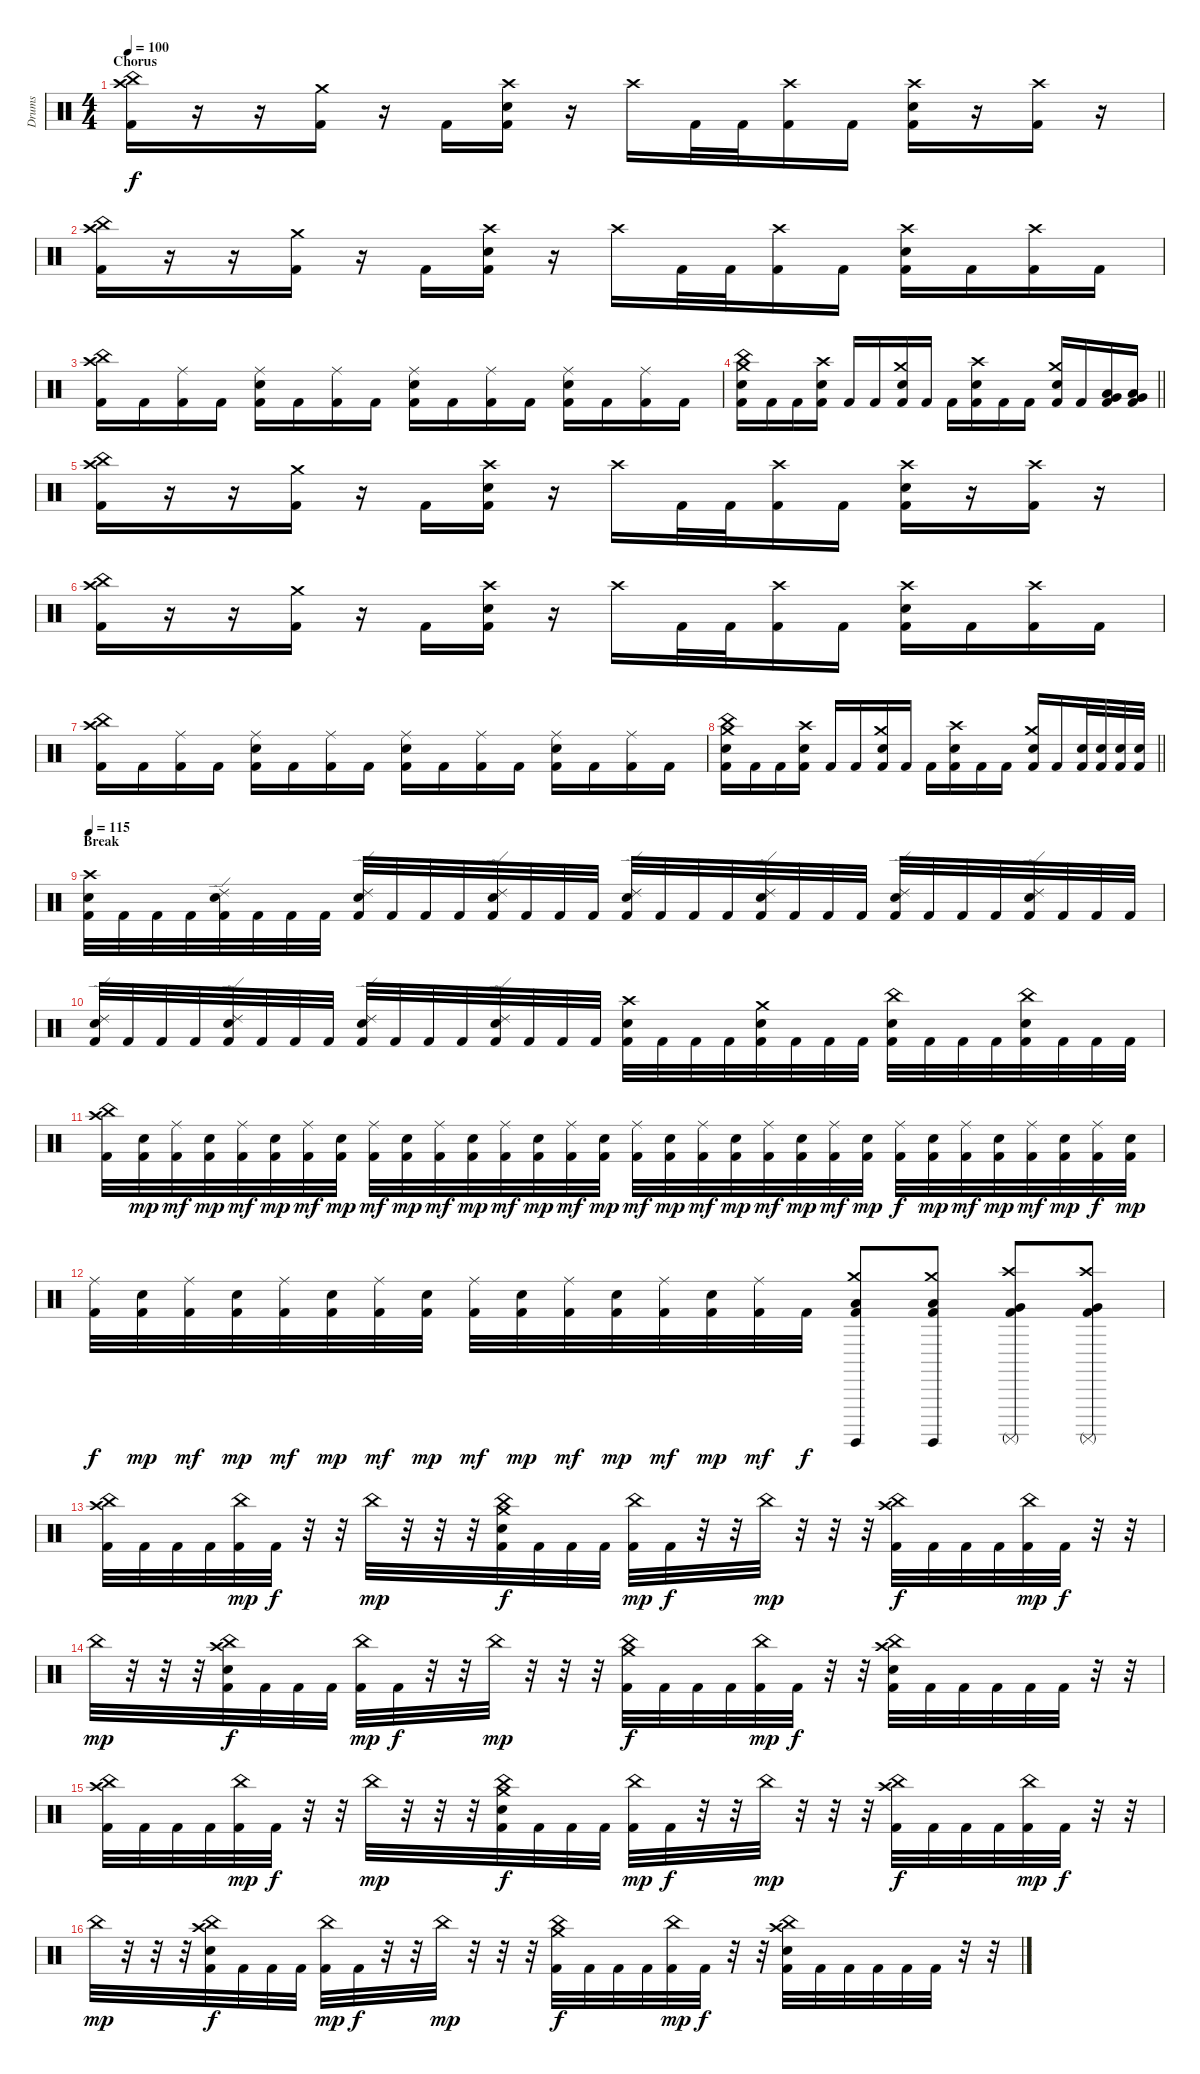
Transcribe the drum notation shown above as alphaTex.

\track ("Drums" "Drums") {instrument percussion}
\staff {score}
\articulation defaults
\ts (4 4)
\section ("" "Chorus")
\tempo 100
\clef neutral
\ks c
("China (hit)" "Crash high (hit)" "Kick (hit) 2").16{dy f} r.16 r.16 ("Crash medium (hit)" "Kick (hit) 2").16 r.16 "Kick (hit) 2".16 ("Crash high (hit)" "Electric Snare (hit)" "Kick (hit) 2").16 r.16 "Crash high (hit)".16 "Kick (hit) 2".32 "Kick (hit) 2".32 ("Crash high (hit)" "Kick (hit) 2").16 "Kick (hit) 2".16 ("Crash high (hit)" "Electric Snare (hit)" "Kick (hit) 2").16 r.16 ("Crash high (hit)" "Kick (hit) 2").16 r.16 |
("China (hit)" "Crash high (hit)" "Kick (hit) 2").16 r.16 r.16 ("Crash medium (hit)" "Kick (hit) 2").16 r.16 "Kick (hit) 2".16 ("Crash high (hit)" "Electric Snare (hit)" "Kick (hit) 2").16 r.16 "Crash high (hit)".16 "Kick (hit) 2".32 "Kick (hit) 2".32 ("Crash high (hit)" "Kick (hit) 2").16 "Kick (hit) 2".16 ("Crash high (hit)" "Electric Snare (hit)" "Kick (hit) 2").16 "Kick (hit) 2".16 ("Crash high (hit)" "Kick (hit) 2").16 "Kick (hit) 2".16 |
("China (hit)" "Crash high (hit)" "Kick (hit) 2").16 "Kick (hit) 2".16 ("Ride (middle)" "Kick (hit) 2").16 "Kick (hit) 2".16 ("Ride (middle)" "Electric Snare (hit)" "Kick (hit) 2").16 "Kick (hit) 2".16 ("Ride (middle)" "Kick (hit) 2").16 "Kick (hit) 2".16 ("Ride (middle)" "Electric Snare (hit)" "Kick (hit) 2").16 "Kick (hit) 2".16 ("Ride (middle)" "Kick (hit) 2").16 "Kick (hit) 2".16 ("Ride (middle)" "Electric Snare (hit)" "Kick (hit) 2").16 "Kick (hit) 2".16 ("Ride (middle)" "Kick (hit) 2").16 "Kick (hit) 2".16 |
\barLineRight lightlight
("China (hit)" "Crash medium (hit)" "Electric Snare (hit)" "Kick (hit) 2").16 "Kick (hit) 2".16 "Kick (hit) 2".16 ("Crash high (hit)" "Electric Snare (hit)" "Kick (hit) 2").16 "Kick (hit) 2".16 "Kick (hit) 2".16 ("Crash medium (hit)" "Electric Snare (hit)" "Kick (hit) 2").16 "Kick (hit) 2".16 "Kick (hit) 2".16 ("Crash high (hit)" "Electric Snare (hit)" "Kick (hit) 2").16 "Kick (hit) 2".16 "Kick (hit) 2".16 ("Crash medium (hit)" "Electric Snare (hit)" "Kick (hit) 2").16 "Kick (hit) 2".16 ("Very Low Tom (hit)" "Low Tom (hit)" "Kick (hit) 2").16 ("Low Floor Tom (hit)" "Very Low Tom (hit)" "Kick (hit) 2").16 |
("China (hit)" "Crash high (hit)" "Kick (hit) 2").16 r.16 r.16 ("Crash medium (hit)" "Kick (hit) 2").16 r.16 "Kick (hit) 2".16 ("Crash high (hit)" "Electric Snare (hit)" "Kick (hit) 2").16 r.16 "Crash high (hit)".16 "Kick (hit) 2".32 "Kick (hit) 2".32 ("Crash high (hit)" "Kick (hit) 2").16 "Kick (hit) 2".16 ("Crash high (hit)" "Electric Snare (hit)" "Kick (hit) 2").16 r.16 ("Crash high (hit)" "Kick (hit) 2").16 r.16 |
("China (hit)" "Crash high (hit)" "Kick (hit) 2").16 r.16 r.16 ("Crash medium (hit)" "Kick (hit) 2").16 r.16 "Kick (hit) 2".16 ("Crash high (hit)" "Electric Snare (hit)" "Kick (hit) 2").16 r.16 "Crash high (hit)".16 "Kick (hit) 2".32 "Kick (hit) 2".32 ("Crash high (hit)" "Kick (hit) 2").16 "Kick (hit) 2".16 ("Crash high (hit)" "Electric Snare (hit)" "Kick (hit) 2").16 "Kick (hit) 2".16 ("Crash high (hit)" "Kick (hit) 2").16 "Kick (hit) 2".16 |
("China (hit)" "Crash high (hit)" "Kick (hit) 2").16 "Kick (hit) 2".16 ("Ride (middle)" "Kick (hit) 2").16 "Kick (hit) 2".16 ("Ride (middle)" "Electric Snare (hit)" "Kick (hit) 2").16 "Kick (hit) 2".16 ("Ride (middle)" "Kick (hit) 2").16 "Kick (hit) 2".16 ("Ride (middle)" "Electric Snare (hit)" "Kick (hit) 2").16 "Kick (hit) 2".16 ("Ride (middle)" "Kick (hit) 2").16 "Kick (hit) 2".16 ("Ride (middle)" "Electric Snare (hit)" "Kick (hit) 2").16 "Kick (hit) 2".16 ("Ride (middle)" "Kick (hit) 2").16 "Kick (hit) 2".16 |
\barLineRight lightlight
("China (hit)" "Crash medium (hit)" "Electric Snare (hit)" "Kick (hit) 2").16 "Kick (hit) 2".16 "Kick (hit) 2".16 ("Crash high (hit)" "Electric Snare (hit)" "Kick (hit) 2").16 "Kick (hit) 2".16 "Kick (hit) 2".16 ("Crash medium (hit)" "Electric Snare (hit)" "Kick (hit) 2").16 "Kick (hit) 2".16 "Kick (hit) 2".16 ("Crash high (hit)" "Electric Snare (hit)" "Kick (hit) 2").16 "Kick (hit) 2".16 "Kick (hit) 2".16 ("Crash medium (hit)" "Electric Snare (hit)" "Kick (hit) 2").16 "Kick (hit) 2".16 ("Electric Snare (hit)" "Kick (hit) 2").32 ("Electric Snare (hit)" "Kick (hit) 2").32 ("Electric Snare (hit)" "Kick (hit) 2").32 ("Electric Snare (hit)" "Kick (hit) 2").32 |
\section ("" "Break")
\tempo 115
("Crash high (hit)" "Electric Snare (hit)" "Kick (hit) 2").32 "Kick (hit) 2".32 "Kick (hit) 2".32 "Kick (hit) 2".32 ("Ride (edge) 2" "Electric Snare (hit)" "Kick (hit) 2").32 "Kick (hit) 2".32 "Kick (hit) 2".32 "Kick (hit) 2".32 ("Ride (edge) 2" "Electric Snare (hit)" "Kick (hit) 2").32 "Kick (hit) 2".32 "Kick (hit) 2".32 "Kick (hit) 2".32 ("Ride (edge) 2" "Electric Snare (hit)" "Kick (hit) 2").32 "Kick (hit) 2".32 "Kick (hit) 2".32 "Kick (hit) 2".32 ("Ride (edge) 2" "Electric Snare (hit)" "Kick (hit) 2").32 "Kick (hit) 2".32 "Kick (hit) 2".32 "Kick (hit) 2".32 ("Ride (edge) 2" "Electric Snare (hit)" "Kick (hit) 2").32 "Kick (hit) 2".32 "Kick (hit) 2".32 "Kick (hit) 2".32 ("Ride (edge) 2" "Electric Snare (hit)" "Kick (hit) 2").32 "Kick (hit) 2".32 "Kick (hit) 2".32 "Kick (hit) 2".32 ("Ride (edge) 2" "Electric Snare (hit)" "Kick (hit) 2").32 "Kick (hit) 2".32 "Kick (hit) 2".32 "Kick (hit) 2".32 |
("Ride (edge) 2" "Electric Snare (hit)" "Kick (hit) 2").32 "Kick (hit) 2".32 "Kick (hit) 2".32 "Kick (hit) 2".32 ("Ride (edge) 2" "Electric Snare (hit)" "Kick (hit) 2").32 "Kick (hit) 2".32 "Kick (hit) 2".32 "Kick (hit) 2".32 ("Ride (edge) 2" "Electric Snare (hit)" "Kick (hit) 2").32 "Kick (hit) 2".32 "Kick (hit) 2".32 "Kick (hit) 2".32 ("Ride (edge) 2" "Electric Snare (hit)" "Kick (hit) 2").32 "Kick (hit) 2".32 "Kick (hit) 2".32 "Kick (hit) 2".32 ("Crash high (hit)" "Electric Snare (hit)" "Kick (hit) 2").32 "Kick (hit) 2".32 "Kick (hit) 2".32 "Kick (hit) 2".32 ("Crash medium (hit)" "Electric Snare (hit)" "Kick (hit) 2").32 "Kick (hit) 2".32 "Kick (hit) 2".32 "Kick (hit) 2".32 ("China (hit)" "Electric Snare (hit)" "Kick (hit) 2").32 "Kick (hit) 2".32 "Kick (hit) 2".32 "Kick (hit) 2".32 ("China (hit)" "Electric Snare (hit)" "Kick (hit) 2").32 "Kick (hit) 2".32 "Kick (hit) 2".32 "Kick (hit) 2".32 |
("China (hit)" "Crash high (hit)" "Kick (hit) 2").32 ("Electric Snare (hit)" "Kick (hit) 2").32{dy mp} ("Ride (middle)" "Kick (hit) 2").32{dy mf} ("Electric Snare (hit)" "Kick (hit) 2").32{dy mp} ("Ride (middle)" "Kick (hit) 2").32{dy mf} ("Electric Snare (hit)" "Kick (hit) 2").32{dy mp} ("Ride (middle)" "Kick (hit) 2").32{dy mf} ("Electric Snare (hit)" "Kick (hit) 2").32{dy mp} ("Ride (middle)" "Kick (hit) 2").32{dy mf} ("Electric Snare (hit)" "Kick (hit) 2").32{dy mp} ("Ride (middle)" "Kick (hit) 2").32{dy mf} ("Electric Snare (hit)" "Kick (hit) 2").32{dy mp} ("Ride (middle)" "Kick (hit) 2").32{dy mf} ("Electric Snare (hit)" "Kick (hit) 2").32{dy mp} ("Ride (middle)" "Kick (hit) 2").32{dy mf} ("Electric Snare (hit)" "Kick (hit) 2").32{dy mp} ("Ride (middle)" "Kick (hit) 2").32{dy mf} ("Electric Snare (hit)" "Kick (hit) 2").32{dy mp} ("Ride (middle)" "Kick (hit) 2").32{dy mf} ("Electric Snare (hit)" "Kick (hit) 2").32{dy mp} ("Ride (middle)" "Kick (hit) 2").32{dy mf} ("Electric Snare (hit)" "Kick (hit) 2").32{dy mp} ("Ride (middle)" "Kick (hit) 2").32{dy mf} ("Electric Snare (hit)" "Kick (hit) 2").32{dy mp} ("Ride (middle)" "Kick (hit) 2").32{dy f} ("Electric Snare (hit)" "Kick (hit) 2").32{dy mp} ("Ride (middle)" "Kick (hit) 2").32{dy mf} ("Electric Snare (hit)" "Kick (hit) 2").32{dy mp} ("Ride (middle)" "Kick (hit) 2").32{dy mf} ("Electric Snare (hit)" "Kick (hit) 2").32{dy mp} ("Ride (middle)" "Kick (hit) 2").32{dy f} ("Electric Snare (hit)" "Kick (hit) 2").32{dy mp} |
("Ride (middle)" "Kick (hit) 2").32{dy f} ("Electric Snare (hit)" "Kick (hit) 2").32{dy mp} ("Ride (middle)" "Kick (hit) 2").32{dy mf} ("Electric Snare (hit)" "Kick (hit) 2").32{dy mp} ("Ride (middle)" "Kick (hit) 2").32{dy mf} ("Electric Snare (hit)" "Kick (hit) 2").32{dy mp} ("Ride (middle)" "Kick (hit) 2").32{dy mf} ("Electric Snare (hit)" "Kick (hit) 2").32{dy mp} ("Ride (middle)" "Kick (hit) 2").32{dy mf} ("Electric Snare (hit)" "Kick (hit) 2").32{dy mp} ("Ride (middle)" "Kick (hit) 2").32{dy mf} ("Electric Snare (hit)" "Kick (hit) 2").32{dy mp} ("Ride (middle)" "Kick (hit) 2").32{dy mf} ("Electric Snare (hit)" "Kick (hit) 2").32{dy mp} ("Ride (middle)" "Kick (hit) 2").32{dy mf} "Kick (hit) 2".32{dy f} ("Crash medium (hit)" "Low Tom (hit)" "Surdo (hit)" "Kick (hit) 2").8 ("Crash medium (hit)" "Low Tom (hit)" "Surdo (hit)" "Kick (hit) 2").8 ("Crash high (hit)" "Very Low Tom (hit)" "Surdo (mute)" "Kick (hit) 2").8 ("Crash high (hit)" "Very Low Tom (hit)" "Surdo (mute)" "Kick (hit) 2").8 |
("China (hit)" "Crash high (hit)" "Kick (hit) 2").32 "Kick (hit) 2".32 "Kick (hit) 2".32 "Kick (hit) 2".32 ("China (hit)" "Kick (hit) 2").32{dy mp} "Kick (hit) 2".32{dy f} r.32 r.32 "China (hit)".32{dy mp} r.32 r.32 r.32 ("China (hit)" "Crash medium (hit)" "Electric Snare (hit)" "Kick (hit) 2").32{dy f} "Kick (hit) 2".32 "Kick (hit) 2".32 "Kick (hit) 2".32 ("China (hit)" "Kick (hit) 2").32{dy mp} "Kick (hit) 2".32{dy f} r.32 r.32 "China (hit)".32{dy mp} r.32 r.32 r.32 ("China (hit)" "Crash high (hit)" "Kick (hit) 2").32{dy f} "Kick (hit) 2".32 "Kick (hit) 2".32 "Kick (hit) 2".32 ("China (hit)" "Kick (hit) 2").32{dy mp} "Kick (hit) 2".32{dy f} r.32 r.32 |
"China (hit)".32{dy mp} r.32 r.32 r.32 ("China (hit)" "Crash high (hit)" "Electric Snare (hit)" "Kick (hit) 2").32{dy f} "Kick (hit) 2".32 "Kick (hit) 2".32 "Kick (hit) 2".32 ("China (hit)" "Kick (hit) 2").32{dy mp} "Kick (hit) 2".32{dy f} r.32 r.32 "China (hit)".32{dy mp} r.32 r.32 r.32 ("China (hit)" "Crash medium (hit)" "Kick (hit) 2").32{dy f} "Kick (hit) 2".32 "Kick (hit) 2".32 "Kick (hit) 2".32 ("China (hit)" "Kick (hit) 2").32{dy mp} "Kick (hit) 2".32{dy f} r.32 r.32 ("China (hit)" "Crash high (hit)" "Electric Snare (hit)" "Kick (hit) 2").32 "Kick (hit) 2".32 "Kick (hit) 2".32 "Kick (hit) 2".32 "Kick (hit) 2".32 "Kick (hit) 2".32 r.32 r.32 |
("China (hit)" "Crash high (hit)" "Kick (hit) 2").32 "Kick (hit) 2".32 "Kick (hit) 2".32 "Kick (hit) 2".32 ("China (hit)" "Kick (hit) 2").32{dy mp} "Kick (hit) 2".32{dy f} r.32 r.32 "China (hit)".32{dy mp} r.32 r.32 r.32 ("China (hit)" "Crash medium (hit)" "Electric Snare (hit)" "Kick (hit) 2").32{dy f} "Kick (hit) 2".32 "Kick (hit) 2".32 "Kick (hit) 2".32 ("China (hit)" "Kick (hit) 2").32{dy mp} "Kick (hit) 2".32{dy f} r.32 r.32 "China (hit)".32{dy mp} r.32 r.32 r.32 ("China (hit)" "Crash high (hit)" "Kick (hit) 2").32{dy f} "Kick (hit) 2".32 "Kick (hit) 2".32 "Kick (hit) 2".32 ("China (hit)" "Kick (hit) 2").32{dy mp} "Kick (hit) 2".32{dy f} r.32 r.32 |
"China (hit)".32{dy mp} r.32 r.32 r.32 ("China (hit)" "Crash high (hit)" "Electric Snare (hit)" "Kick (hit) 2").32{dy f} "Kick (hit) 2".32 "Kick (hit) 2".32 "Kick (hit) 2".32 ("China (hit)" "Kick (hit) 2").32{dy mp} "Kick (hit) 2".32{dy f} r.32 r.32 "China (hit)".32{dy mp} r.32 r.32 r.32 ("China (hit)" "Crash medium (hit)" "Kick (hit) 2").32{dy f} "Kick (hit) 2".32 "Kick (hit) 2".32 "Kick (hit) 2".32 ("China (hit)" "Kick (hit) 2").32{dy mp} "Kick (hit) 2".32{dy f} r.32 r.32 ("China (hit)" "Crash high (hit)" "Electric Snare (hit)" "Kick (hit) 2").32 "Kick (hit) 2".32 "Kick (hit) 2".32 "Kick (hit) 2".32 "Kick (hit) 2".32 "Kick (hit) 2".32 r.32 r.32
